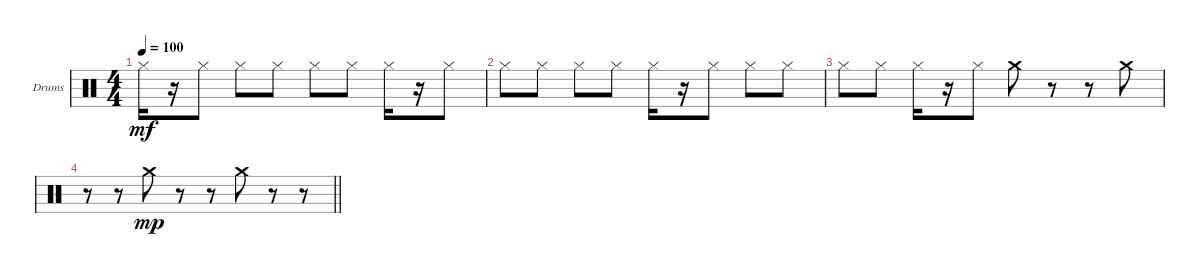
\bracketExtendMode groupsimilarinstruments
\firstSystemTrackNameOrientation horizontal
\otherSystemsTrackNameOrientation horizontal
\track ("Е. Кулаков" "Drums") {instrument percussion}
\staff {score}
\articulation defaults
\ts (4 4)
\tempo 100
\clef neutral
\ks c "Hi-Hat (closed)".16{dy mf}
r.16 "Hi-Hat (closed)".8 "Hi-Hat (closed)".8 "Hi-Hat (closed)".8 "Hi-Hat (closed)".8 "Hi-Hat (closed)".8 "Hi-Hat (closed)".16 r.16 "Hi-Hat (closed)".8 |
"Hi-Hat (closed)".8 "Hi-Hat (closed)".8 "Hi-Hat (closed)".8 "Hi-Hat (closed)".8 "Hi-Hat (closed)".16 r.16 "Hi-Hat (closed)".8 "Hi-Hat (closed)".8 "Hi-Hat (closed)".8 |
"Hi-Hat (closed)".8 "Hi-Hat (closed)".8 "Hi-Hat (closed)".16 r.16 "Hi-Hat (closed)".8 "Crash medium (hit)".8 r.8 r.8 "Crash medium (hit)".8 |
\barLineRight lightlight
r.8 r.8 "Crash medium (hit)".8{dy mp} r.8 r.8 "Crash medium (hit)".8 r.8 r.8
